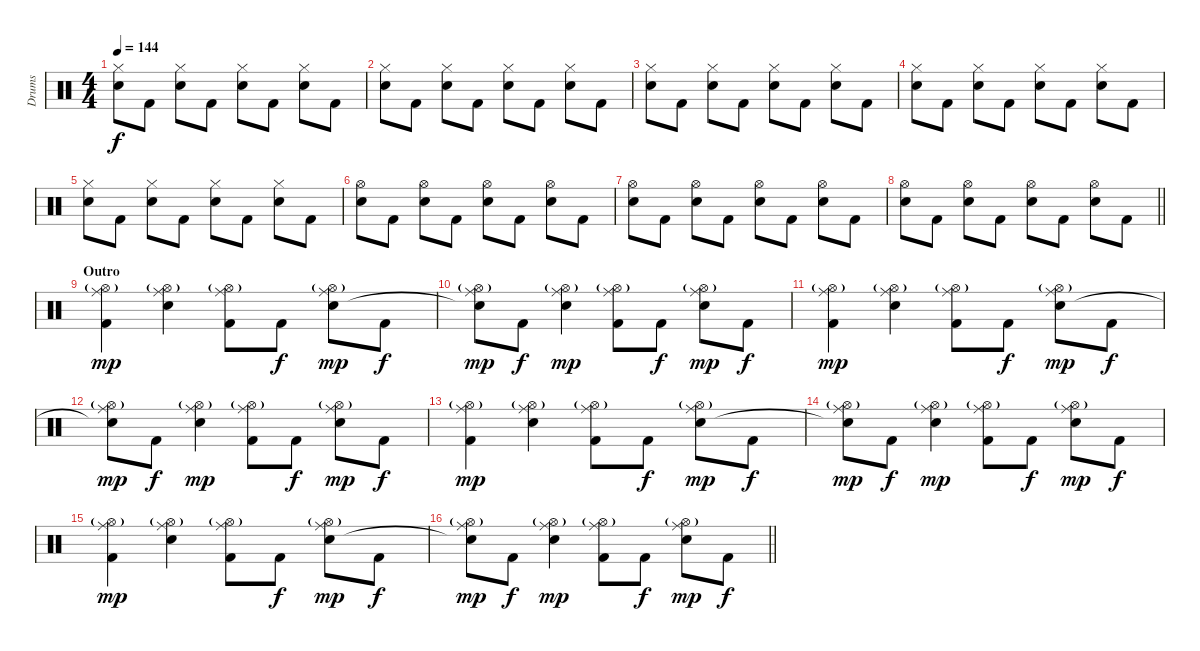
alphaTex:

\track ("Drums" "Drums") {instrument percussion}
\staff {score}
\articulation defaults
\ts (4 4)
\section ("" "")
\tempo 144
\clef neutral
\ks c
("Hi-Hat (closed)" "Electric Snare (hit)").8{dy f} "Kick (hit) 2".8 ("Hi-Hat (closed)" "Electric Snare (hit)").8 "Kick (hit) 2".8 ("Hi-Hat (closed)" "Electric Snare (hit)").8 "Kick (hit) 2".8 ("Hi-Hat (closed)" "Electric Snare (hit)").8 "Kick (hit) 2".8 |
("Hi-Hat (closed)" "Electric Snare (hit)").8 "Kick (hit) 2".8 ("Hi-Hat (closed)" "Electric Snare (hit)").8 "Kick (hit) 2".8 ("Hi-Hat (closed)" "Electric Snare (hit)").8 "Kick (hit) 2".8 ("Hi-Hat (closed)" "Electric Snare (hit)").8 "Kick (hit) 2".8 |
("Hi-Hat (closed)" "Electric Snare (hit)").8 "Kick (hit) 2".8 ("Hi-Hat (closed)" "Electric Snare (hit)").8 "Kick (hit) 2".8 ("Hi-Hat (closed)" "Electric Snare (hit)").8 "Kick (hit) 2".8 ("Hi-Hat (closed)" "Electric Snare (hit)").8 "Kick (hit) 2".8 |
("Hi-Hat (closed)" "Electric Snare (hit)").8 "Kick (hit) 2".8 ("Hi-Hat (closed)" "Electric Snare (hit)").8 "Kick (hit) 2".8 ("Hi-Hat (closed)" "Electric Snare (hit)").8 "Kick (hit) 2".8 ("Hi-Hat (closed)" "Electric Snare (hit)").8 "Kick (hit) 2".8 |
("Hi-Hat (closed)" "Electric Snare (hit)").8 "Kick (hit) 2".8 ("Hi-Hat (closed)" "Electric Snare (hit)").8 "Kick (hit) 2".8 ("Hi-Hat (closed)" "Electric Snare (hit)").8 "Kick (hit) 2".8 ("Hi-Hat (closed)" "Electric Snare (hit)").8 "Kick (hit) 2".8 |
("Hi-Hat (open)" "Electric Snare (hit)").8 "Kick (hit) 2".8 ("Hi-Hat (open)" "Electric Snare (hit)").8 "Kick (hit) 2".8 ("Hi-Hat (open)" "Electric Snare (hit)").8 "Kick (hit) 2".8 ("Hi-Hat (open)" "Electric Snare (hit)").8 "Kick (hit) 2".8 |
("Hi-Hat (open)" "Electric Snare (hit)").8 "Kick (hit) 2".8 ("Hi-Hat (open)" "Electric Snare (hit)").8 "Kick (hit) 2".8 ("Hi-Hat (open)" "Electric Snare (hit)").8 "Kick (hit) 2".8 ("Hi-Hat (open)" "Electric Snare (hit)").8 "Kick (hit) 2".8 |
\barLineRight lightlight
("Hi-Hat (open)" "Electric Snare (hit)").8 "Kick (hit) 2".8 ("Hi-Hat (open)" "Electric Snare (hit)").8 "Kick (hit) 2".8 ("Hi-Hat (open)" "Electric Snare (hit)").8 "Kick (hit) 2".8 ("Hi-Hat (open)" "Electric Snare (hit)").8 "Kick (hit) 2".8 |
\section ("" "Outro")
("Ride (middle)" "Hi-Hat (open)"{g} "Kick (hit) 2").4{dy mp} ("Ride (middle)" "Hi-Hat (open)"{g} "Electric Snare (hit)").4 ("Ride (middle)" "Hi-Hat (open)"{g} "Kick (hit) 2").8 "Kick (hit) 2".8{dy f} ("Ride (middle)" "Hi-Hat (open)"{g} "Electric Snare (hit)").8{dy mp} "Kick (hit) 2".8{dy f} |
("Ride (middle)" "Hi-Hat (open)"{g} "Snare (hit)"{t}).8{dy mp} "Kick (hit) 2".8{dy f} ("Ride (middle)" "Hi-Hat (open)"{g} "Electric Snare (hit)").4{dy mp} ("Ride (middle)" "Hi-Hat (open)"{g} "Kick (hit) 2").8 "Kick (hit) 2".8{dy f} ("Ride (middle)" "Hi-Hat (open)"{g} "Electric Snare (hit)").8{dy mp} "Kick (hit) 2".8{dy f} |
("Ride (middle)" "Hi-Hat (open)"{g} "Kick (hit) 2").4{dy mp} ("Ride (middle)" "Hi-Hat (open)"{g} "Electric Snare (hit)").4 ("Ride (middle)" "Hi-Hat (open)"{g} "Kick (hit) 2").8 "Kick (hit) 2".8{dy f} ("Ride (middle)" "Hi-Hat (open)"{g} "Electric Snare (hit)").8{dy mp} "Kick (hit) 2".8{dy f} |
("Ride (middle)" "Hi-Hat (open)"{g} "Snare (hit)"{t}).8{dy mp} "Kick (hit) 2".8{dy f} ("Ride (middle)" "Hi-Hat (open)"{g} "Electric Snare (hit)").4{dy mp} ("Ride (middle)" "Hi-Hat (open)"{g} "Kick (hit) 2").8 "Kick (hit) 2".8{dy f} ("Ride (middle)" "Hi-Hat (open)"{g} "Electric Snare (hit)").8{dy mp} "Kick (hit) 2".8{dy f} |
("Ride (middle)" "Hi-Hat (open)"{g} "Kick (hit) 2").4{dy mp} ("Ride (middle)" "Hi-Hat (open)"{g} "Electric Snare (hit)").4 ("Ride (middle)" "Hi-Hat (open)"{g} "Kick (hit) 2").8 "Kick (hit) 2".8{dy f} ("Ride (middle)" "Hi-Hat (open)"{g} "Electric Snare (hit)").8{dy mp} "Kick (hit) 2".8{dy f} |
("Ride (middle)" "Hi-Hat (open)"{g} "Snare (hit)"{t}).8{dy mp} "Kick (hit) 2".8{dy f} ("Ride (middle)" "Hi-Hat (open)"{g} "Electric Snare (hit)").4{dy mp} ("Ride (middle)" "Hi-Hat (open)"{g} "Kick (hit) 2").8 "Kick (hit) 2".8{dy f} ("Ride (middle)" "Hi-Hat (open)"{g} "Electric Snare (hit)").8{dy mp} "Kick (hit) 2".8{dy f} |
("Ride (middle)" "Hi-Hat (open)"{g} "Kick (hit) 2").4{dy mp} ("Ride (middle)" "Hi-Hat (open)"{g} "Electric Snare (hit)").4 ("Ride (middle)" "Hi-Hat (open)"{g} "Kick (hit) 2").8 "Kick (hit) 2".8{dy f} ("Ride (middle)" "Hi-Hat (open)"{g} "Electric Snare (hit)").8{dy mp} "Kick (hit) 2".8{dy f} |
\barLineRight lightlight
("Ride (middle)" "Hi-Hat (open)"{g} "Snare (hit)"{t}).8{dy mp} "Kick (hit) 2".8{dy f} ("Ride (middle)" "Hi-Hat (open)"{g} "Electric Snare (hit)").4{dy mp} ("Ride (middle)" "Hi-Hat (open)"{g} "Kick (hit) 2").8 "Kick (hit) 2".8{dy f} ("Ride (middle)" "Hi-Hat (open)"{g} "Electric Snare (hit)").8{dy mp} "Kick (hit) 2".8{dy f}
